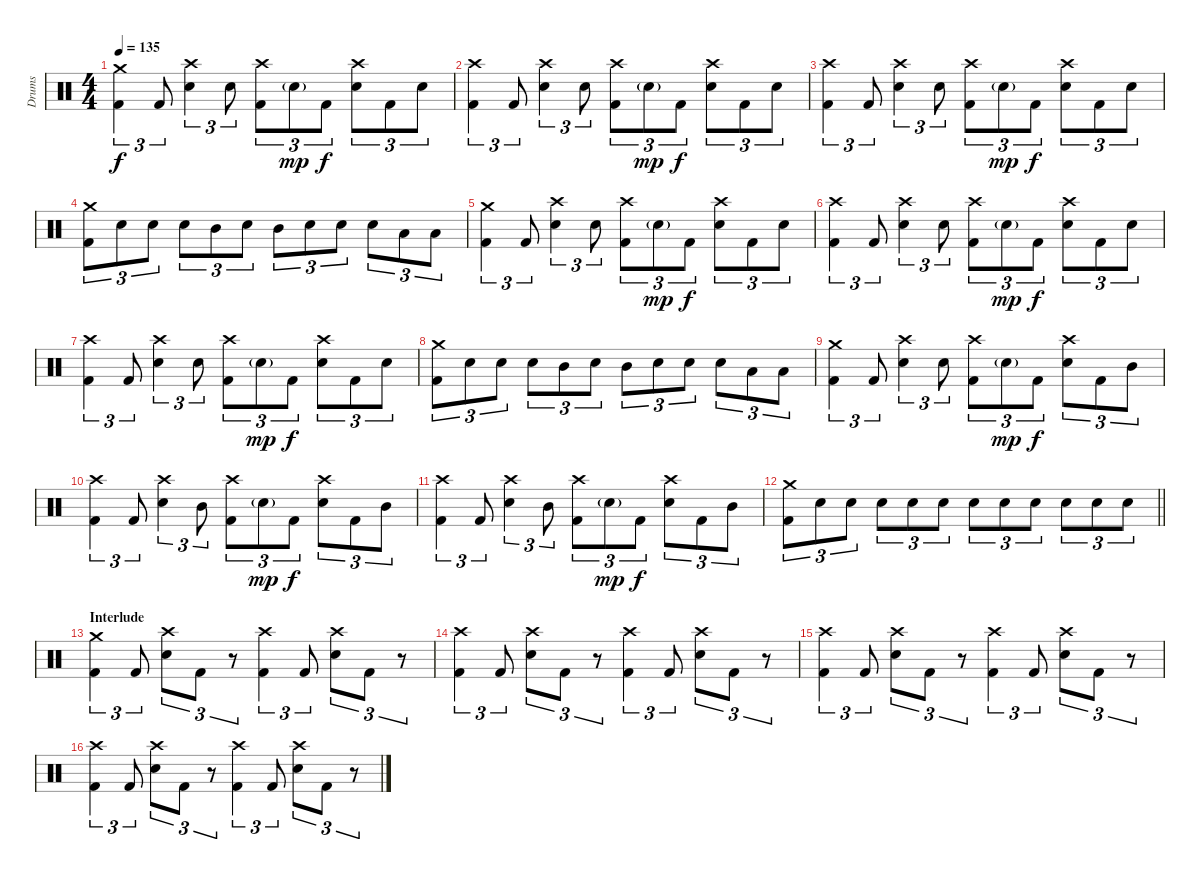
\track ("Drums" "Drums") {instrument percussion}
\staff {score}
\articulation defaults
\ts (4 4)
\tempo 135
\clef neutral
\ks c
("Kick (hit) 2" "Crash medium (hit)").4{tu (3 2) dy f} "Kick (hit) 2".8{tu (3 2)} ("Crash high (hit)" "Electric Snare (hit)").4{tu (3 2)} "Electric Snare (hit)".8{tu (3 2)} ("Kick (hit) 2" "Crash high (hit)").8{tu (3 2)} "Electric Snare (hit)"{g}.8{tu (3 2) dy mp} "Kick (hit) 2".8{tu (3 2) dy f} ("Electric Snare (hit)" "Crash high (hit)").8{tu (3 2)} "Kick (hit) 2".8{tu (3 2)} "Electric Snare (hit)".8{tu (3 2)} |
("Kick (hit) 2" "Crash high (hit)").4{tu (3 2)} "Kick (hit) 2".8{tu (3 2)} ("Crash high (hit)" "Electric Snare (hit)").4{tu (3 2)} "Electric Snare (hit)".8{tu (3 2)} ("Kick (hit) 2" "Crash high (hit)").8{tu (3 2)} "Electric Snare (hit)"{g}.8{tu (3 2) dy mp} "Kick (hit) 2".8{tu (3 2) dy f} ("Electric Snare (hit)" "Crash high (hit)").8{tu (3 2)} "Kick (hit) 2".8{tu (3 2)} "Electric Snare (hit)".8{tu (3 2)} |
("Kick (hit) 2" "Crash high (hit)").4{tu (3 2)} "Kick (hit) 2".8{tu (3 2)} ("Crash high (hit)" "Electric Snare (hit)").4{tu (3 2)} "Electric Snare (hit)".8{tu (3 2)} ("Kick (hit) 2" "Crash high (hit)").8{tu (3 2)} "Electric Snare (hit)"{g}.8{tu (3 2) dy mp} "Kick (hit) 2".8{tu (3 2) dy f} ("Electric Snare (hit)" "Crash high (hit)").8{tu (3 2)} "Kick (hit) 2".8{tu (3 2)} "Electric Snare (hit)".8{tu (3 2)} |
("Crash medium (hit)" "Kick (hit) 2").8{tu (3 2)} "Electric Snare (hit)".8{tu (3 2)} "Electric Snare (hit)".8{tu (3 2)} "Electric Snare (hit)".8{tu (3 2)} "Mid Tom (hit)".8{tu (3 2)} "Electric Snare (hit)".8{tu (3 2)} "Mid Tom (hit)".8{tu (3 2)} "Electric Snare (hit)".8{tu (3 2)} "Electric Snare (hit)".8{tu (3 2)} "Electric Snare (hit)".8{tu (3 2)} "Low Tom (hit)".8{tu (3 2)} "Low Tom (hit)".8{tu (3 2)} |
("Kick (hit) 2" "Crash medium (hit)").4{tu (3 2)} "Kick (hit) 2".8{tu (3 2)} ("Crash high (hit)" "Electric Snare (hit)").4{tu (3 2)} "Electric Snare (hit)".8{tu (3 2)} ("Kick (hit) 2" "Crash high (hit)").8{tu (3 2)} "Electric Snare (hit)"{g}.8{tu (3 2) dy mp} "Kick (hit) 2".8{tu (3 2) dy f} ("Electric Snare (hit)" "Crash high (hit)").8{tu (3 2)} "Kick (hit) 2".8{tu (3 2)} "Electric Snare (hit)".8{tu (3 2)} |
("Kick (hit) 2" "Crash high (hit)").4{tu (3 2)} "Kick (hit) 2".8{tu (3 2)} ("Crash high (hit)" "Electric Snare (hit)").4{tu (3 2)} "Electric Snare (hit)".8{tu (3 2)} ("Kick (hit) 2" "Crash high (hit)").8{tu (3 2)} "Electric Snare (hit)"{g}.8{tu (3 2) dy mp} "Kick (hit) 2".8{tu (3 2) dy f} ("Electric Snare (hit)" "Crash high (hit)").8{tu (3 2)} "Kick (hit) 2".8{tu (3 2)} "Electric Snare (hit)".8{tu (3 2)} |
("Kick (hit) 2" "Crash high (hit)").4{tu (3 2)} "Kick (hit) 2".8{tu (3 2)} ("Crash high (hit)" "Electric Snare (hit)").4{tu (3 2)} "Electric Snare (hit)".8{tu (3 2)} ("Kick (hit) 2" "Crash high (hit)").8{tu (3 2)} "Electric Snare (hit)"{g}.8{tu (3 2) dy mp} "Kick (hit) 2".8{tu (3 2) dy f} ("Electric Snare (hit)" "Crash high (hit)").8{tu (3 2)} "Kick (hit) 2".8{tu (3 2)} "Electric Snare (hit)".8{tu (3 2)} |
("Crash medium (hit)" "Kick (hit) 2").8{tu (3 2)} "Electric Snare (hit)".8{tu (3 2)} "Electric Snare (hit)".8{tu (3 2)} "Electric Snare (hit)".8{tu (3 2)} "Mid Tom (hit)".8{tu (3 2)} "Electric Snare (hit)".8{tu (3 2)} "Mid Tom (hit)".8{tu (3 2)} "Electric Snare (hit)".8{tu (3 2)} "Electric Snare (hit)".8{tu (3 2)} "Electric Snare (hit)".8{tu (3 2)} "Low Tom (hit)".8{tu (3 2)} "Low Tom (hit)".8{tu (3 2)} |
("Kick (hit) 2" "Crash medium (hit)").4{tu (3 2)} "Kick (hit) 2".8{tu (3 2)} ("Crash high (hit)" "Electric Snare (hit)").4{tu (3 2)} "Electric Snare (hit)".8{tu (3 2)} ("Kick (hit) 2" "Crash high (hit)").8{tu (3 2)} "Electric Snare (hit)"{g}.8{tu (3 2) dy mp} "Kick (hit) 2".8{tu (3 2) dy f} ("Electric Snare (hit)" "Crash high (hit)").8{tu (3 2)} "Kick (hit) 2".8{tu (3 2)} "Mid Tom (hit)".8{tu (3 2)} |
("Kick (hit) 2" "Crash high (hit)").4{tu (3 2)} "Kick (hit) 2".8{tu (3 2)} ("Crash high (hit)" "Electric Snare (hit)").4{tu (3 2)} "Mid Tom (hit)".8{tu (3 2)} ("Kick (hit) 2" "Crash high (hit)").8{tu (3 2)} "Electric Snare (hit)"{g}.8{tu (3 2) dy mp} "Kick (hit) 2".8{tu (3 2) dy f} ("Electric Snare (hit)" "Crash high (hit)").8{tu (3 2)} "Kick (hit) 2".8{tu (3 2)} "Mid Tom (hit)".8{tu (3 2)} |
("Kick (hit) 2" "Crash high (hit)").4{tu (3 2)} "Kick (hit) 2".8{tu (3 2)} ("Crash high (hit)" "Electric Snare (hit)").4{tu (3 2)} "Mid Tom (hit)".8{tu (3 2)} ("Kick (hit) 2" "Crash high (hit)").8{tu (3 2)} "Electric Snare (hit)"{g}.8{tu (3 2) dy mp} "Kick (hit) 2".8{tu (3 2) dy f} ("Electric Snare (hit)" "Crash high (hit)").8{tu (3 2)} "Kick (hit) 2".8{tu (3 2)} "Mid Tom (hit)".8{tu (3 2)} |
\barLineRight lightlight
("Crash medium (hit)" "Kick (hit) 2").8{tu (3 2)} "Electric Snare (hit)".8{tu (3 2)} "Electric Snare (hit)".8{tu (3 2)} "Electric Snare (hit)".8{tu (3 2)} "Electric Snare (hit)".8{tu (3 2)} "Electric Snare (hit)".8{tu (3 2)} "Electric Snare (hit)".8{tu (3 2)} "Electric Snare (hit)".8{tu (3 2)} "Electric Snare (hit)".8{tu (3 2)} "Electric Snare (hit)".8{tu (3 2)} "Electric Snare (hit)".8{tu (3 2)} "Electric Snare (hit)".8{tu (3 2)} |
\section ("" "Interlude")
("Crash medium (hit)" "Kick (hit) 2").4{tu (3 2)} "Kick (hit) 2".8{tu (3 2)} ("Crash high (hit)" "Electric Snare (hit)").8{tu (3 2)} "Kick (hit) 2".8{tu (3 2)} r.8{tu (3 2)} ("Crash high (hit)" "Kick (hit) 2").4{tu (3 2)} "Kick (hit) 2".8{tu (3 2)} ("Crash high (hit)" "Electric Snare (hit)").8{tu (3 2)} "Kick (hit) 2".8{tu (3 2)} r.8{tu (3 2)} |
("Crash high (hit)" "Kick (hit) 2").4{tu (3 2)} "Kick (hit) 2".8{tu (3 2)} ("Crash high (hit)" "Electric Snare (hit)").8{tu (3 2)} "Kick (hit) 2".8{tu (3 2)} r.8{tu (3 2)} ("Crash high (hit)" "Kick (hit) 2").4{tu (3 2)} "Kick (hit) 2".8{tu (3 2)} ("Crash high (hit)" "Electric Snare (hit)").8{tu (3 2)} "Kick (hit) 2".8{tu (3 2)} r.8{tu (3 2)} |
("Crash high (hit)" "Kick (hit) 2").4{tu (3 2)} "Kick (hit) 2".8{tu (3 2)} ("Crash high (hit)" "Electric Snare (hit)").8{tu (3 2)} "Kick (hit) 2".8{tu (3 2)} r.8{tu (3 2)} ("Crash high (hit)" "Kick (hit) 2").4{tu (3 2)} "Kick (hit) 2".8{tu (3 2)} ("Crash high (hit)" "Electric Snare (hit)").8{tu (3 2)} "Kick (hit) 2".8{tu (3 2)} r.8{tu (3 2)} |
("Crash high (hit)" "Kick (hit) 2").4{tu (3 2)} "Kick (hit) 2".8{tu (3 2)} ("Crash high (hit)" "Electric Snare (hit)").8{tu (3 2)} "Kick (hit) 2".8{tu (3 2)} r.8{tu (3 2)} ("Crash high (hit)" "Kick (hit) 2").4{tu (3 2)} "Kick (hit) 2".8{tu (3 2)} ("Crash high (hit)" "Electric Snare (hit)").8{tu (3 2)} "Kick (hit) 2".8{tu (3 2)} r.8{tu (3 2)}
